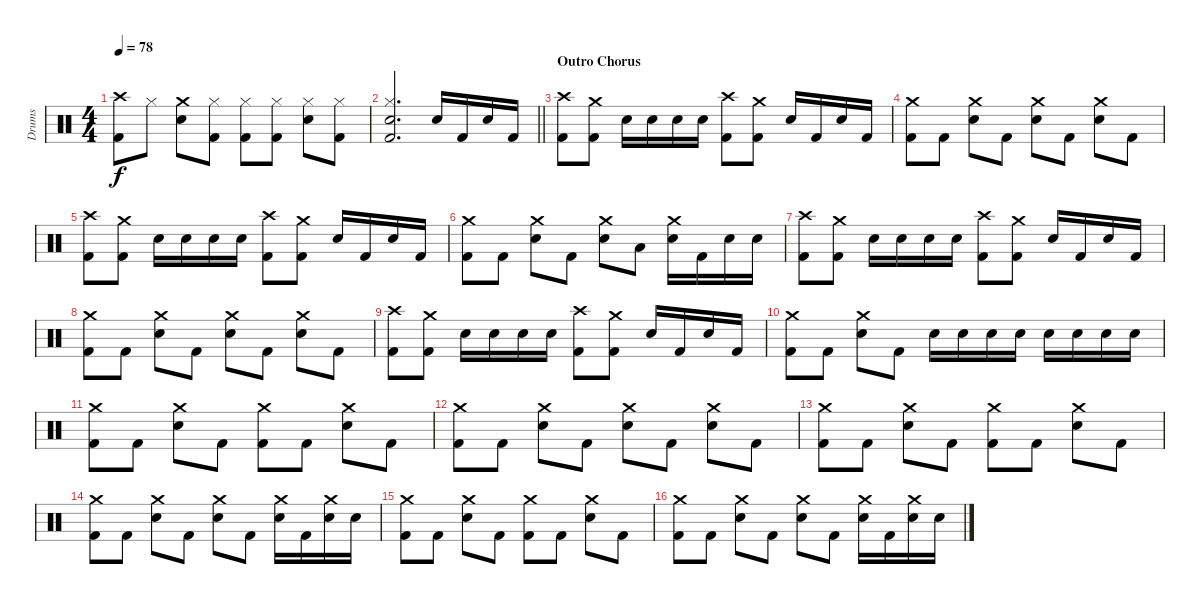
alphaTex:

\track ("Drums" "Drums") {instrument percussion}
\staff {score}
\articulation defaults
\ts (4 4)
\tempo 78
\clef neutral
\ks c
("Crash high (hit)" "Kick (hit) 2").8{dy f} "Hi-Hat (closed)".8 ("Crash medium (hit)" "Electric Snare (hit)").8 ("Hi-Hat (closed)" "Kick (hit) 2").8 ("Hi-Hat (closed)" "Kick (hit) 2").8 ("Hi-Hat (closed)" "Kick (hit) 2").8 ("Hi-Hat (closed)" "Electric Snare (hit)").8 ("Hi-Hat (closed)" "Kick (hit) 2").8 |
\barLineRight lightlight
("Hi-Hat (closed)" "Electric Snare (hit)" "Kick (hit) 2").2{d} "Electric Snare (hit)".16 "Kick (hit) 2".16 "Electric Snare (hit)".16 "Kick (hit) 2".16 |
\section ("" "Outro Chorus")
("Crash high (hit)" "Kick (hit) 2").8 ("Crash medium (hit)" "Kick (hit) 2").8 "Electric Snare (hit)".16 "Electric Snare (hit)".16 "Electric Snare (hit)".16 "Electric Snare (hit)".16 ("Crash high (hit)" "Kick (hit) 2").8 ("Crash medium (hit)" "Kick (hit) 2").8 "Electric Snare (hit)".16 "Kick (hit) 2".16 "Electric Snare (hit)".16 "Kick (hit) 2".16 |
("Crash medium (hit)" "Kick (hit) 2").8 "Kick (hit) 2".8 ("Crash medium (hit)" "Electric Snare (hit)").8 "Kick (hit) 2".8 ("Crash medium (hit)" "Electric Snare (hit)").8 "Kick (hit) 2".8 ("Crash medium (hit)" "Electric Snare (hit)").8 "Kick (hit) 2".8 |
("Crash high (hit)" "Kick (hit) 2").8 ("Crash medium (hit)" "Kick (hit) 2").8 "Electric Snare (hit)".16 "Electric Snare (hit)".16 "Electric Snare (hit)".16 "Electric Snare (hit)".16 ("Crash high (hit)" "Kick (hit) 2").8 ("Crash medium (hit)" "Kick (hit) 2").8 "Electric Snare (hit)".16 "Kick (hit) 2".16 "Electric Snare (hit)".16 "Kick (hit) 2".16 |
("Crash medium (hit)" "Kick (hit) 2").8 "Kick (hit) 2".8 ("Crash medium (hit)" "Electric Snare (hit)").8 "Kick (hit) 2".8 ("Crash medium (hit)" "Electric Snare (hit)").8 "Low Floor Tom (hit)".8 ("Crash medium (hit)" "Electric Snare (hit)").16 "Kick (hit) 2".16 "Electric Snare (hit)".16 "Electric Snare (hit)".16 |
("Crash high (hit)" "Kick (hit) 2").8 ("Crash medium (hit)" "Kick (hit) 2").8 "Electric Snare (hit)".16 "Electric Snare (hit)".16 "Electric Snare (hit)".16 "Electric Snare (hit)".16 ("Crash high (hit)" "Kick (hit) 2").8 ("Crash medium (hit)" "Kick (hit) 2").8 "Electric Snare (hit)".16 "Kick (hit) 2".16 "Electric Snare (hit)".16 "Kick (hit) 2".16 |
("Crash medium (hit)" "Kick (hit) 2").8 "Kick (hit) 2".8 ("Crash medium (hit)" "Electric Snare (hit)").8 "Kick (hit) 2".8 ("Crash medium (hit)" "Electric Snare (hit)").8 "Kick (hit) 2".8 ("Crash medium (hit)" "Electric Snare (hit)").8 "Kick (hit) 2".8 |
("Crash high (hit)" "Kick (hit) 2").8 ("Crash medium (hit)" "Kick (hit) 2").8 "Electric Snare (hit)".16 "Electric Snare (hit)".16 "Electric Snare (hit)".16 "Electric Snare (hit)".16 ("Crash high (hit)" "Kick (hit) 2").8 ("Crash medium (hit)" "Kick (hit) 2").8 "Electric Snare (hit)".16 "Kick (hit) 2".16 "Electric Snare (hit)".16 "Kick (hit) 2".16 |
("Crash medium (hit)" "Kick (hit) 2").8 "Kick (hit) 2".8 ("Crash medium (hit)" "Electric Snare (hit)").8 "Kick (hit) 2".8 "Electric Snare (hit)".16 "Electric Snare (hit)".16 "Electric Snare (hit)".16 "Electric Snare (hit)".16 "Electric Snare (hit)".16 "Electric Snare (hit)".16 "Electric Snare (hit)".16 "Electric Snare (hit)".16 |
("Crash medium (hit)" "Kick (hit) 2").8 "Kick (hit) 2".8 ("Crash medium (hit)" "Electric Snare (hit)").8 "Kick (hit) 2".8 ("Crash medium (hit)" "Kick (hit) 2").8 "Kick (hit) 2".8 ("Crash medium (hit)" "Electric Snare (hit)").8 "Kick (hit) 2".8 |
("Crash medium (hit)" "Kick (hit) 2").8 "Kick (hit) 2".8 ("Crash medium (hit)" "Electric Snare (hit)").8 "Kick (hit) 2".8 ("Crash medium (hit)" "Electric Snare (hit)").8 "Kick (hit) 2".8 ("Crash medium (hit)" "Electric Snare (hit)").8 "Kick (hit) 2".8 |
("Crash medium (hit)" "Kick (hit) 2").8 "Kick (hit) 2".8 ("Crash medium (hit)" "Electric Snare (hit)").8 "Kick (hit) 2".8 ("Crash medium (hit)" "Kick (hit) 2").8 "Kick (hit) 2".8 ("Crash medium (hit)" "Electric Snare (hit)").8 "Kick (hit) 2".8 |
("Crash medium (hit)" "Kick (hit) 2").8 "Kick (hit) 2".8 ("Crash medium (hit)" "Electric Snare (hit)").8 "Kick (hit) 2".8 ("Crash medium (hit)" "Electric Snare (hit)").8 "Kick (hit) 2".8 ("Crash medium (hit)" "Electric Snare (hit)").16 "Kick (hit) 2".16 ("Crash medium (hit)" "Electric Snare (hit)").16 "Electric Snare (hit)".16 |
("Crash medium (hit)" "Kick (hit) 2").8 "Kick (hit) 2".8 ("Crash medium (hit)" "Electric Snare (hit)").8 "Kick (hit) 2".8 ("Crash medium (hit)" "Kick (hit) 2").8 "Kick (hit) 2".8 ("Crash medium (hit)" "Electric Snare (hit)").8 "Kick (hit) 2".8 |
("Crash medium (hit)" "Kick (hit) 2").8 "Kick (hit) 2".8 ("Crash medium (hit)" "Electric Snare (hit)").8 "Kick (hit) 2".8 ("Crash medium (hit)" "Electric Snare (hit)").8 "Kick (hit) 2".8 ("Crash medium (hit)" "Electric Snare (hit)").16 "Kick (hit) 2".16 ("Crash medium (hit)" "Electric Snare (hit)").16 "Electric Snare (hit)".16
